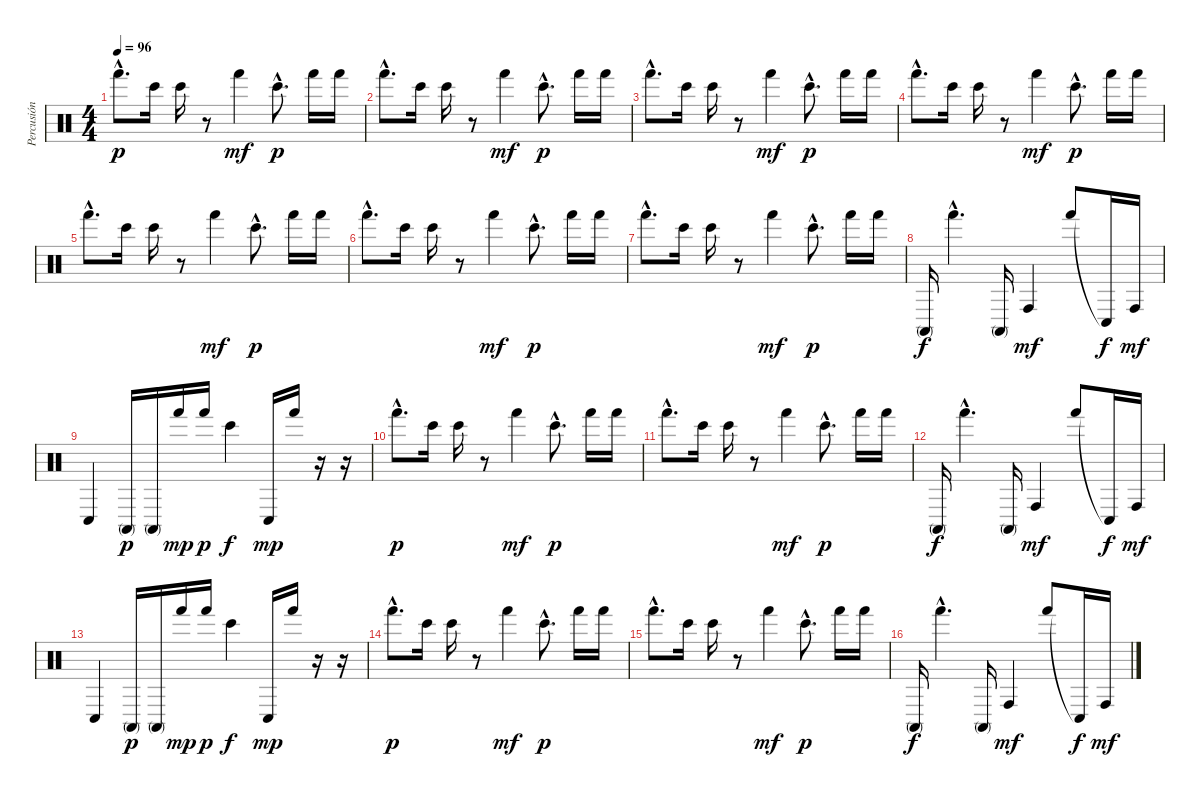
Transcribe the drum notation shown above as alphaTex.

\track ("Percusión" "Percusión") {instrument percussion}
\staff {score}
\articulation defaults
\ts (4 4)
\tempo 96
\clef neutral
\ks c "Hand (hit)"{hac}.8{d dy p} "Bongo High (hit)".16 "Bongo High (hit)".16
r.8 "Hand (hit)".4{dy mf} "Bongo High (hit)"{hac}.8{d dy p} "Hand (hit)".16 "Hand (hit)".16 |
"Hand (hit)"{hac}.8{d} "Bongo High (hit)".16 "Bongo High (hit)".16 r.8 "Hand (hit)".4{dy mf} "Bongo High (hit)"{hac}.8{d dy p} "Hand (hit)".16 "Hand (hit)".16 |
"Hand (hit)"{hac}.8{d} "Bongo High (hit)".16 "Bongo High (hit)".16 r.8 "Hand (hit)".4{dy mf} "Bongo High (hit)"{hac}.8{d dy p} "Hand (hit)".16 "Hand (hit)".16 |
"Hand (hit)"{hac}.8{d} "Bongo High (hit)".16 "Bongo High (hit)".16 r.8 "Hand (hit)".4{dy mf} "Bongo High (hit)"{hac}.8{d dy p} "Hand (hit)".16 "Hand (hit)".16 |
"Hand (hit)"{hac}.8{d} "Bongo High (hit)".16 "Bongo High (hit)".16 r.8 "Hand (hit)".4{dy mf} "Bongo High (hit)"{hac}.8{d dy p} "Hand (hit)".16 "Hand (hit)".16 |
"Hand (hit)"{hac}.8{d} "Bongo High (hit)".16 "Bongo High (hit)".16 r.8 "Hand (hit)".4{dy mf} "Bongo High (hit)"{hac}.8{d dy p} "Hand (hit)".16 "Hand (hit)".16 |
"Hand (hit)"{hac}.8{d} "Bongo High (hit)".16 "Bongo High (hit)".16 r.8 "Hand (hit)".4{dy mf} "Bongo High (hit)"{hac}.8{d dy p} "Hand (hit)".16 "Hand (hit)".16 |
"Conga high (mute)".16{dy f} "Hand (hit)"{hac}.4{d} "Conga high (mute)".16 "Conga high (hit)".4{dy mf} "Hand (hit)".8 "Conga low (hit)"{t}.16{dy f} "Conga high (hit)".16{dy mf} |
"Conga low (hit)".4 "Conga high (mute)".16{dy p} "Conga high (mute)".16 "Hand (hit)".16{dy mp} "Hand (hit)".16{dy p} "Bongo High (hit)".4{dy f} "Conga low (hit)".16{dy mp} "Hand (hit)".16 r.16 r.16 |
"Hand (hit)"{hac}.8{d dy p} "Bongo High (hit)".16 "Bongo High (hit)".16 r.8 "Hand (hit)".4{dy mf} "Bongo High (hit)"{hac}.8{d dy p} "Hand (hit)".16 "Hand (hit)".16 |
"Hand (hit)"{hac}.8{d} "Bongo High (hit)".16 "Bongo High (hit)".16 r.8 "Hand (hit)".4{dy mf} "Bongo High (hit)"{hac}.8{d dy p} "Hand (hit)".16 "Hand (hit)".16 |
"Conga high (mute)".16{dy f} "Hand (hit)"{hac}.4{d} "Conga high (mute)".16 "Conga high (hit)".4{dy mf} "Hand (hit)".8 "Conga low (hit)"{t}.16{dy f} "Conga high (hit)".16{dy mf} |
"Conga low (hit)".4 "Conga high (mute)".16{dy p} "Conga high (mute)".16 "Hand (hit)".16{dy mp} "Hand (hit)".16{dy p} "Bongo High (hit)".4{dy f} "Conga low (hit)".16{dy mp} "Hand (hit)".16 r.16 r.16 |
"Hand (hit)"{hac}.8{d dy p} "Bongo High (hit)".16 "Bongo High (hit)".16 r.8 "Hand (hit)".4{dy mf} "Bongo High (hit)"{hac}.8{d dy p} "Hand (hit)".16 "Hand (hit)".16 |
"Hand (hit)"{hac}.8{d} "Bongo High (hit)".16 "Bongo High (hit)".16 r.8 "Hand (hit)".4{dy mf} "Bongo High (hit)"{hac}.8{d dy p} "Hand (hit)".16 "Hand (hit)".16 |
"Conga high (mute)".16{dy f} "Hand (hit)"{hac}.4{d} "Conga high (mute)".16 "Conga high (hit)".4{dy mf} "Hand (hit)".8 "Conga low (hit)"{t}.16{dy f} "Conga high (hit)".16{dy mf}
